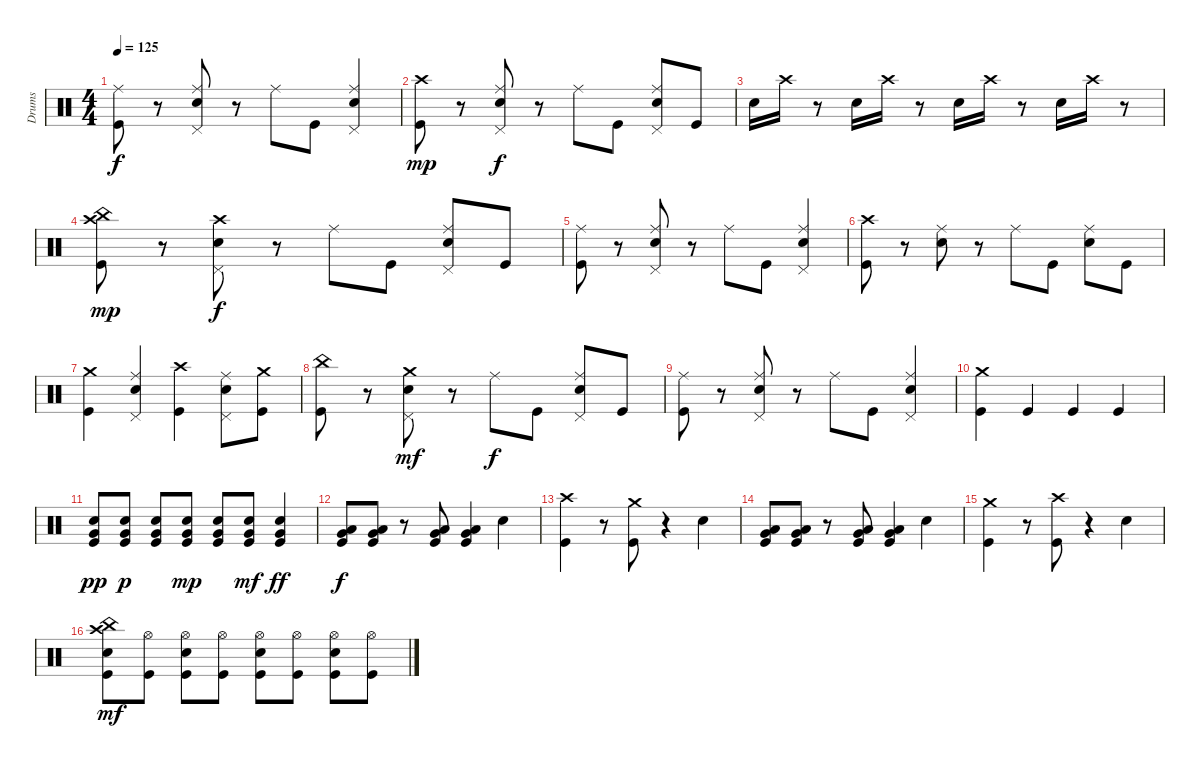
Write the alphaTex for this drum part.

\track ("Drums" "Drums") {instrument percussion}
\staff {score}
\articulation defaults
\ts (4 4)
\tempo 125
\clef neutral
\ks c
("Kick (hit)" "Ride (middle)").8{dy f} r.8 ("Snare (hit) 2" "Ride (middle)" "Pedal Hi-Hat (hit)").8 r.8 "Ride (middle)".8 "Kick (hit)".8 ("Snare (hit) 2" "Ride (middle)" "Pedal Hi-Hat (hit)").4 |
("Kick (hit)" "Crash high (hit)").8{dy mp} r.8 ("Snare (hit) 2" "Ride (middle)" "Pedal Hi-Hat (hit)").8{dy f} r.8 "Ride (middle)".8 "Kick (hit)".8 ("Snare (hit) 2" "Ride (middle)" "Pedal Hi-Hat (hit)").8 "Kick (hit)".8 |
"Snare (hit) 2".16 "Crash high (hit)".16 r.8 "Snare (hit) 2".16 "Crash high (hit)".16 r.8 "Snare (hit) 2".16 "Crash high (hit)".16 r.8 "Snare (hit) 2".16 "Crash high (hit)".16 r.8 |
("China (hit)" "Kick (hit)" "Crash high (hit)").8{dy mp} r.8 ("Snare (hit) 2" "Crash high (hit)" "Pedal Hi-Hat (hit)").8{dy f} r.8 "Ride (middle)".8 "Kick (hit)".8 ("Snare (hit) 2" "Ride (middle)" "Pedal Hi-Hat (hit)").8 "Kick (hit)".8 |
("Kick (hit)" "Ride (middle)").8 r.8 ("Snare (hit) 2" "Ride (middle)" "Pedal Hi-Hat (hit)").8 r.8 "Ride (middle)".8 "Kick (hit)".8 ("Snare (hit) 2" "Ride (middle)" "Pedal Hi-Hat (hit)").4 |
("Crash high (hit)" "Kick (hit)").8 r.8 ("Snare (hit) 2" "Ride (middle)").8 r.8 "Ride (middle)".8 "Kick (hit)".8 ("Snare (hit) 2" "Ride (middle)").8 "Kick (hit)".8 |
("Kick (hit)" "Crash medium (hit)").4 ("Snare (hit) 2" "Pedal Hi-Hat (hit)" "Ride (middle)").4 ("Crash high (hit)" "Kick (hit)").4 ("Snare (hit) 2" "Pedal Hi-Hat (hit)" "Ride (middle)").8 ("Crash medium (hit)" "Kick (hit)").8 |
("China (hit)" "Kick (hit)").8 r.8 ("Snare (hit) 2" "Crash medium (hit)" "Pedal Hi-Hat (hit)").8{dy mf} r.8 "Ride (middle)".8{dy f} "Kick (hit)".8 ("Snare (hit) 2" "Ride (middle)" "Pedal Hi-Hat (hit)").8 "Kick (hit)".8 |
("Kick (hit)" "Ride (middle)").8 r.8 ("Snare (hit) 2" "Ride (middle)" "Pedal Hi-Hat (hit)").8 r.8 "Ride (middle)".8 "Kick (hit)".8 ("Snare (hit) 2" "Ride (middle)" "Pedal Hi-Hat (hit)").4 |
("Kick (hit)" "Crash medium (hit)").4 "Kick (hit)".4 "Kick (hit)".4 "Kick (hit)".4 |
("Kick (hit)" "Snare (hit) 2" "Very Low Tom (hit)").8{dy pp} ("Kick (hit)" "Snare (hit) 2" "Very Low Tom (hit)").8{dy p} ("Kick (hit)" "Snare (hit) 2" "Very Low Tom (hit)").8 ("Kick (hit)" "Snare (hit) 2" "Very Low Tom (hit)").8{dy mp} ("Kick (hit)" "Snare (hit) 2" "Very Low Tom (hit)").8 ("Kick (hit)" "Snare (hit) 2" "Very Low Tom (hit)").8{dy mf} ("Snare (hit) 2" "Kick (hit)" "Very Low Tom (hit)").4{dy ff} |
("Kick (hit)" "Very Low Tom (hit)" "Low Tom (hit)").8{dy f} ("Kick (hit)" "Very Low Tom (hit)" "Low Tom (hit)").8 r.8 ("Kick (hit)" "Very Low Tom (hit)" "Low Tom (hit)").8 ("Kick (hit)" "Very Low Tom (hit)" "Low Tom (hit)").4 "Snare (hit) 2".4 |
("Kick (hit)" "Crash high (hit)").4 r.8 ("Kick (hit)" "Crash medium (hit)").8 r.4 "Snare (hit) 2".4 |
("Kick (hit)" "Very Low Tom (hit)" "Low Tom (hit)").8 ("Kick (hit)" "Very Low Tom (hit)" "Low Tom (hit)").8 r.8 ("Kick (hit)" "Low Tom (hit)" "Very Low Tom (hit)").8 ("Kick (hit)" "Very Low Tom (hit)" "Low Tom (hit)").4 "Snare (hit) 2".4 |
("Kick (hit)" "Crash medium (hit)").4 r.8 ("Kick (hit)" "Crash high (hit)").8 r.4 "Snare (hit) 2".4 |
("Snare (hit) 2" "China (hit)" "Kick (hit)" "Crash high (hit)").8{dy mf} ("Kick (hit)" "Hi-Hat (open)").8 ("Snare (hit) 2" "Hi-Hat (open)" "Kick (hit)").8 ("Kick (hit)" "Hi-Hat (open)").8 ("Snare (hit) 2" "Hi-Hat (open)" "Kick (hit)").8 ("Kick (hit)" "Hi-Hat (open)").8 ("Snare (hit) 2" "Hi-Hat (open)" "Kick (hit)").8 ("Kick (hit)" "Hi-Hat (open)").8
